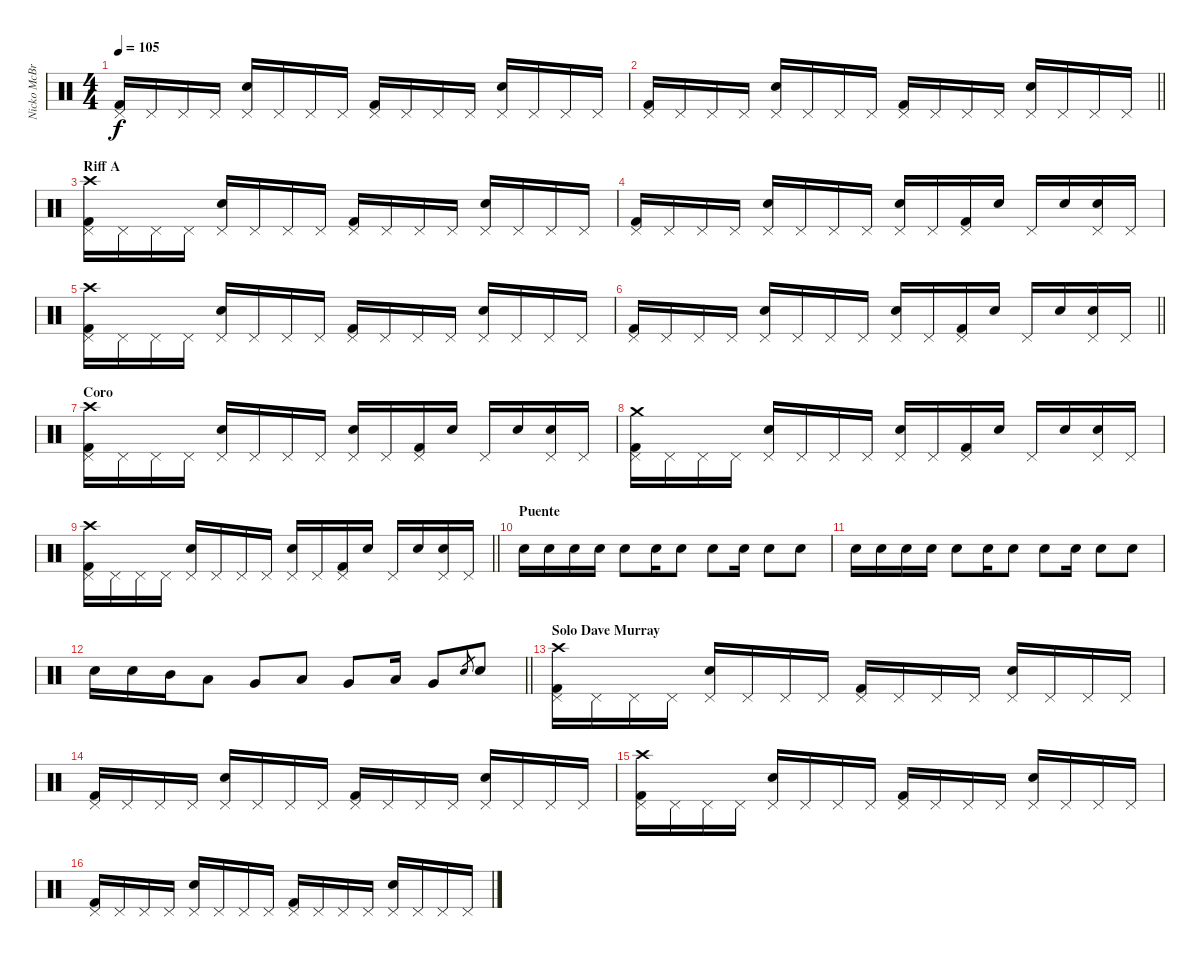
\track ("Nicko McBrain" "Nicko McBr") {instrument percussion}
\staff {score}
\articulation defaults
\ts (4 4)
\tempo 105
\clef neutral
\ks c
("Kick (hit) 2" "Pedal Hi-Hat (hit)").16{dy f} "Pedal Hi-Hat (hit)".16 "Pedal Hi-Hat (hit)".16 "Pedal Hi-Hat (hit)".16 ("Snare (hit) 2" "Pedal Hi-Hat (hit)").16 "Pedal Hi-Hat (hit)".16 "Pedal Hi-Hat (hit)".16 "Pedal Hi-Hat (hit)".16 ("Kick (hit) 2" "Pedal Hi-Hat (hit)").16 "Pedal Hi-Hat (hit)".16 "Pedal Hi-Hat (hit)".16 "Pedal Hi-Hat (hit)".16 ("Snare (hit) 2" "Pedal Hi-Hat (hit)").16 "Pedal Hi-Hat (hit)".16 "Pedal Hi-Hat (hit)".16 "Pedal Hi-Hat (hit)".16 |
\barLineRight lightlight
("Kick (hit) 2" "Pedal Hi-Hat (hit)").16 "Pedal Hi-Hat (hit)".16 "Pedal Hi-Hat (hit)".16 "Pedal Hi-Hat (hit)".16 ("Snare (hit) 2" "Pedal Hi-Hat (hit)").16 "Pedal Hi-Hat (hit)".16 "Pedal Hi-Hat (hit)".16 "Pedal Hi-Hat (hit)".16 ("Kick (hit) 2" "Pedal Hi-Hat (hit)").16 "Pedal Hi-Hat (hit)".16 "Pedal Hi-Hat (hit)".16 "Pedal Hi-Hat (hit)".16 ("Snare (hit) 2" "Pedal Hi-Hat (hit)").16 "Pedal Hi-Hat (hit)".16 "Pedal Hi-Hat (hit)".16 "Pedal Hi-Hat (hit)".16 |
\section ("" "Riff A")
("Kick (hit) 2" "Pedal Hi-Hat (hit)" "Crash high (hit)").16 "Pedal Hi-Hat (hit)".16 "Pedal Hi-Hat (hit)".16 "Pedal Hi-Hat (hit)".16 ("Snare (hit) 2" "Pedal Hi-Hat (hit)").16 "Pedal Hi-Hat (hit)".16 "Pedal Hi-Hat (hit)".16 "Pedal Hi-Hat (hit)".16 ("Kick (hit) 2" "Pedal Hi-Hat (hit)").16 "Pedal Hi-Hat (hit)".16 "Pedal Hi-Hat (hit)".16 "Pedal Hi-Hat (hit)".16 ("Snare (hit) 2" "Pedal Hi-Hat (hit)").16 "Pedal Hi-Hat (hit)".16 "Pedal Hi-Hat (hit)".16 "Pedal Hi-Hat (hit)".16 |
("Kick (hit) 2" "Pedal Hi-Hat (hit)").16 "Pedal Hi-Hat (hit)".16 "Pedal Hi-Hat (hit)".16 "Pedal Hi-Hat (hit)".16 ("Snare (hit) 2" "Pedal Hi-Hat (hit)").16 "Pedal Hi-Hat (hit)".16 "Pedal Hi-Hat (hit)".16 "Pedal Hi-Hat (hit)".16 ("Snare (hit) 2" "Pedal Hi-Hat (hit)").16 "Pedal Hi-Hat (hit)".16 ("Kick (hit) 2" "Pedal Hi-Hat (hit)").16 "Snare (hit) 2".16 "Pedal Hi-Hat (hit)".16 "Snare (hit) 2".16 ("Snare (hit) 2" "Pedal Hi-Hat (hit)").16 "Pedal Hi-Hat (hit)".16 |
("Kick (hit) 2" "Pedal Hi-Hat (hit)" "Crash high (hit)").16 "Pedal Hi-Hat (hit)".16 "Pedal Hi-Hat (hit)".16 "Pedal Hi-Hat (hit)".16 ("Snare (hit) 2" "Pedal Hi-Hat (hit)").16 "Pedal Hi-Hat (hit)".16 "Pedal Hi-Hat (hit)".16 "Pedal Hi-Hat (hit)".16 ("Kick (hit) 2" "Pedal Hi-Hat (hit)").16 "Pedal Hi-Hat (hit)".16 "Pedal Hi-Hat (hit)".16 "Pedal Hi-Hat (hit)".16 ("Snare (hit) 2" "Pedal Hi-Hat (hit)").16 "Pedal Hi-Hat (hit)".16 "Pedal Hi-Hat (hit)".16 "Pedal Hi-Hat (hit)".16 |
\barLineRight lightlight
("Kick (hit) 2" "Pedal Hi-Hat (hit)").16 "Pedal Hi-Hat (hit)".16 "Pedal Hi-Hat (hit)".16 "Pedal Hi-Hat (hit)".16 ("Snare (hit) 2" "Pedal Hi-Hat (hit)").16 "Pedal Hi-Hat (hit)".16 "Pedal Hi-Hat (hit)".16 "Pedal Hi-Hat (hit)".16 ("Snare (hit) 2" "Pedal Hi-Hat (hit)").16 "Pedal Hi-Hat (hit)".16 ("Kick (hit) 2" "Pedal Hi-Hat (hit)").16 "Snare (hit) 2".16 "Pedal Hi-Hat (hit)".16 "Snare (hit) 2".16 ("Snare (hit) 2" "Pedal Hi-Hat (hit)").16 "Pedal Hi-Hat (hit)".16 |
\section ("" "Coro")
("Kick (hit) 2" "Pedal Hi-Hat (hit)" "Crash high (hit)").16 "Pedal Hi-Hat (hit)".16 "Pedal Hi-Hat (hit)".16 "Pedal Hi-Hat (hit)".16 ("Snare (hit) 2" "Pedal Hi-Hat (hit)").16 "Pedal Hi-Hat (hit)".16 "Pedal Hi-Hat (hit)".16 "Pedal Hi-Hat (hit)".16 ("Snare (hit) 2" "Pedal Hi-Hat (hit)").16 "Pedal Hi-Hat (hit)".16 ("Kick (hit) 2" "Pedal Hi-Hat (hit)").16 "Snare (hit) 2".16 "Pedal Hi-Hat (hit)".16 "Snare (hit) 2".16 ("Snare (hit) 2" "Pedal Hi-Hat (hit)").16 "Pedal Hi-Hat (hit)".16 |
("Kick (hit) 2" "Pedal Hi-Hat (hit)" "Crash medium (hit)").16 "Pedal Hi-Hat (hit)".16 "Pedal Hi-Hat (hit)".16 "Pedal Hi-Hat (hit)".16 ("Snare (hit) 2" "Pedal Hi-Hat (hit)").16 "Pedal Hi-Hat (hit)".16 "Pedal Hi-Hat (hit)".16 "Pedal Hi-Hat (hit)".16 ("Snare (hit) 2" "Pedal Hi-Hat (hit)").16 "Pedal Hi-Hat (hit)".16 ("Kick (hit) 2" "Pedal Hi-Hat (hit)").16 "Snare (hit) 2".16 "Pedal Hi-Hat (hit)".16 "Snare (hit) 2".16 ("Snare (hit) 2" "Pedal Hi-Hat (hit)").16 "Pedal Hi-Hat (hit)".16 |
\barLineRight lightlight
("Kick (hit) 2" "Pedal Hi-Hat (hit)" "Crash high (hit)").16 "Pedal Hi-Hat (hit)".16 "Pedal Hi-Hat (hit)".16 "Pedal Hi-Hat (hit)".16 ("Snare (hit) 2" "Pedal Hi-Hat (hit)").16 "Pedal Hi-Hat (hit)".16 "Pedal Hi-Hat (hit)".16 "Pedal Hi-Hat (hit)".16 ("Snare (hit) 2" "Pedal Hi-Hat (hit)").16 "Pedal Hi-Hat (hit)".16 ("Kick (hit) 2" "Pedal Hi-Hat (hit)").16 "Snare (hit) 2".16 "Pedal Hi-Hat (hit)".16 "Snare (hit) 2".16 ("Snare (hit) 2" "Pedal Hi-Hat (hit)").16 "Pedal Hi-Hat (hit)".16 |
\section ("" "Puente")
"Snare (hit) 2".16 "Snare (hit) 2".16 "Snare (hit) 2".16 "Snare (hit) 2".16 "Snare (hit) 2".8 "Snare (hit) 2".16 "Snare (hit) 2".8 "Snare (hit) 2".8 "Snare (hit) 2".16 "Snare (hit) 2".8 "Snare (hit) 2".8 |
"Snare (hit) 2".16 "Snare (hit) 2".16 "Snare (hit) 2".16 "Snare (hit) 2".16 "Snare (hit) 2".8 "Snare (hit) 2".16 "Snare (hit) 2".8 "Snare (hit) 2".8 "Snare (hit) 2".16 "Snare (hit) 2".8 "Snare (hit) 2".8 |
\barLineRight lightlight "Snare (hit) 2".16 "Snare (hit) 2".16 "Mid Tom (hit)".16 "Low Tom (hit)".8 "Very Low Tom (hit)".8 "Low Tom (hit)".8 "Very Low Tom (hit)".8 "Low Floor Tom (hit)".16 "Very Low Tom (hit)".8 "Snare (hit) 2".8{gr} "Snare (hit) 2".8
|
\section ("" "Solo Dave Murray")
("Kick (hit) 2" "Pedal Hi-Hat (hit)" "Crash high (hit)").16 "Pedal Hi-Hat (hit)".16 "Pedal Hi-Hat (hit)".16 "Pedal Hi-Hat (hit)".16 ("Snare (hit) 2" "Pedal Hi-Hat (hit)").16 "Pedal Hi-Hat (hit)".16 "Pedal Hi-Hat (hit)".16 "Pedal Hi-Hat (hit)".16 ("Kick (hit) 2" "Pedal Hi-Hat (hit)").16 "Pedal Hi-Hat (hit)".16 "Pedal Hi-Hat (hit)".16 "Pedal Hi-Hat (hit)".16 ("Snare (hit) 2" "Pedal Hi-Hat (hit)").16 "Pedal Hi-Hat (hit)".16 "Pedal Hi-Hat (hit)".16 "Pedal Hi-Hat (hit)".16 |
("Kick (hit) 2" "Pedal Hi-Hat (hit)").16 "Pedal Hi-Hat (hit)".16 "Pedal Hi-Hat (hit)".16 "Pedal Hi-Hat (hit)".16 ("Snare (hit) 2" "Pedal Hi-Hat (hit)").16 "Pedal Hi-Hat (hit)".16 "Pedal Hi-Hat (hit)".16 "Pedal Hi-Hat (hit)".16 ("Kick (hit) 2" "Pedal Hi-Hat (hit)").16 "Pedal Hi-Hat (hit)".16 "Pedal Hi-Hat (hit)".16 "Pedal Hi-Hat (hit)".16 ("Snare (hit) 2" "Pedal Hi-Hat (hit)").16 "Pedal Hi-Hat (hit)".16 "Pedal Hi-Hat (hit)".16 "Pedal Hi-Hat (hit)".16 |
("Kick (hit) 2" "Pedal Hi-Hat (hit)" "Crash high (hit)").16 "Pedal Hi-Hat (hit)".16 "Pedal Hi-Hat (hit)".16 "Pedal Hi-Hat (hit)".16 ("Snare (hit) 2" "Pedal Hi-Hat (hit)").16 "Pedal Hi-Hat (hit)".16 "Pedal Hi-Hat (hit)".16 "Pedal Hi-Hat (hit)".16 ("Kick (hit) 2" "Pedal Hi-Hat (hit)").16 "Pedal Hi-Hat (hit)".16 "Pedal Hi-Hat (hit)".16 "Pedal Hi-Hat (hit)".16 ("Snare (hit) 2" "Pedal Hi-Hat (hit)").16 "Pedal Hi-Hat (hit)".16 "Pedal Hi-Hat (hit)".16 "Pedal Hi-Hat (hit)".16 |
("Kick (hit) 2" "Pedal Hi-Hat (hit)").16 "Pedal Hi-Hat (hit)".16 "Pedal Hi-Hat (hit)".16 "Pedal Hi-Hat (hit)".16 ("Snare (hit) 2" "Pedal Hi-Hat (hit)").16 "Pedal Hi-Hat (hit)".16 "Pedal Hi-Hat (hit)".16 "Pedal Hi-Hat (hit)".16 ("Kick (hit) 2" "Pedal Hi-Hat (hit)").16 "Pedal Hi-Hat (hit)".16 "Pedal Hi-Hat (hit)".16 "Pedal Hi-Hat (hit)".16 ("Snare (hit) 2" "Pedal Hi-Hat (hit)").16 "Pedal Hi-Hat (hit)".16 "Pedal Hi-Hat (hit)".16 "Pedal Hi-Hat (hit)".16
